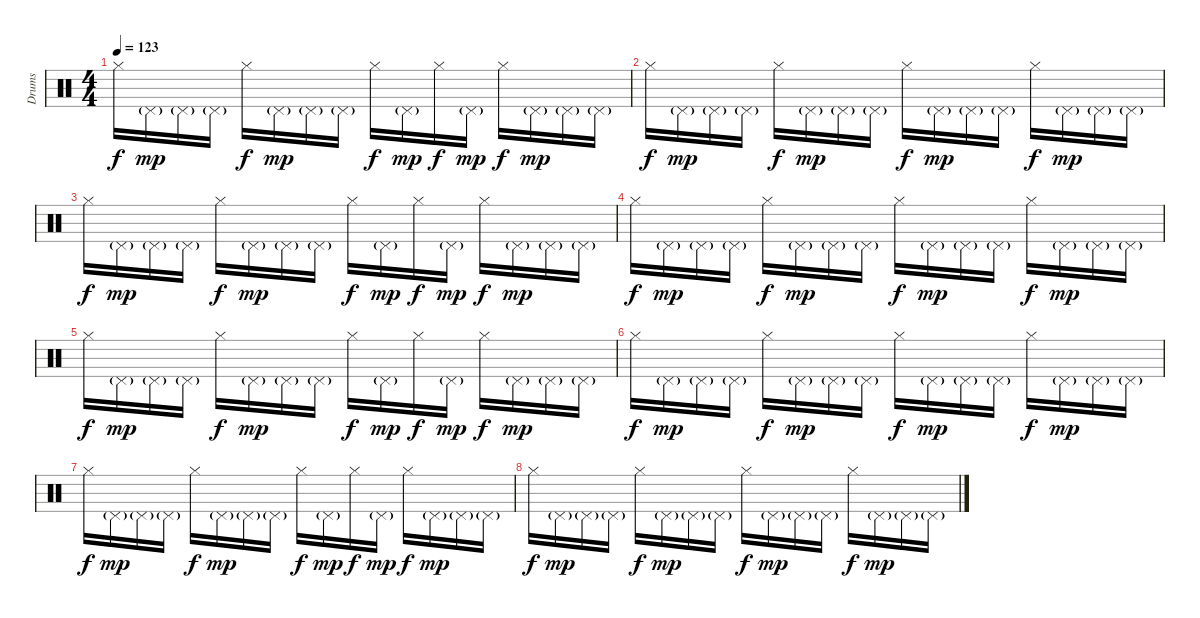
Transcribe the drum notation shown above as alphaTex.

\track ("Drums" "Drums") {instrument percussion}
\staff {score}
\articulation defaults
\ts (4 4)
\tempo 123
\clef neutral
\ks c "Hi-Hat (closed)".16{dy f} "Pedal Hi-Hat (hit)"{g}.16{dy mp} "Pedal Hi-Hat (hit)"{g}.16 "Pedal Hi-Hat (hit)"{g}.16 "Hi-Hat (closed)".16{dy f} "Pedal Hi-Hat (hit)"{g}.16{dy mp} "Pedal Hi-Hat (hit)"{g}.16 "Pedal Hi-Hat (hit)"{g}.16 "Hi-Hat (closed)".16{dy f} "Pedal Hi-Hat (hit)"{g}.16{dy mp} "Hi-Hat (closed)".16{dy f} "Pedal Hi-Hat (hit)"{g}.16{dy mp} "Hi-Hat (closed)".16{dy f} "Pedal Hi-Hat (hit)"{g}.16{dy mp} "Pedal Hi-Hat (hit)"{g}.16 "Pedal Hi-Hat (hit)"{g}.16
|
"Hi-Hat (closed)".16{dy f} "Pedal Hi-Hat (hit)"{g}.16{dy mp} "Pedal Hi-Hat (hit)"{g}.16 "Pedal Hi-Hat (hit)"{g}.16 "Hi-Hat (closed)".16{dy f} "Pedal Hi-Hat (hit)"{g}.16{dy mp} "Pedal Hi-Hat (hit)"{g}.16 "Pedal Hi-Hat (hit)"{g}.16 "Hi-Hat (closed)".16{dy f} "Pedal Hi-Hat (hit)"{g}.16{dy mp} "Pedal Hi-Hat (hit)"{g}.16 "Pedal Hi-Hat (hit)"{g}.16 "Hi-Hat (closed)".16{dy f} "Pedal Hi-Hat (hit)"{g}.16{dy mp} "Pedal Hi-Hat (hit)"{g}.16 "Pedal Hi-Hat (hit)"{g}.16 |
"Hi-Hat (closed)".16{dy f} "Pedal Hi-Hat (hit)"{g}.16{dy mp} "Pedal Hi-Hat (hit)"{g}.16 "Pedal Hi-Hat (hit)"{g}.16 "Hi-Hat (closed)".16{dy f} "Pedal Hi-Hat (hit)"{g}.16{dy mp} "Pedal Hi-Hat (hit)"{g}.16 "Pedal Hi-Hat (hit)"{g}.16 "Hi-Hat (closed)".16{dy f} "Pedal Hi-Hat (hit)"{g}.16{dy mp} "Hi-Hat (closed)".16{dy f} "Pedal Hi-Hat (hit)"{g}.16{dy mp} "Hi-Hat (closed)".16{dy f} "Pedal Hi-Hat (hit)"{g}.16{dy mp} "Pedal Hi-Hat (hit)"{g}.16 "Pedal Hi-Hat (hit)"{g}.16 |
"Hi-Hat (closed)".16{dy f} "Pedal Hi-Hat (hit)"{g}.16{dy mp} "Pedal Hi-Hat (hit)"{g}.16 "Pedal Hi-Hat (hit)"{g}.16 "Hi-Hat (closed)".16{dy f} "Pedal Hi-Hat (hit)"{g}.16{dy mp} "Pedal Hi-Hat (hit)"{g}.16 "Pedal Hi-Hat (hit)"{g}.16 "Hi-Hat (closed)".16{dy f} "Pedal Hi-Hat (hit)"{g}.16{dy mp} "Pedal Hi-Hat (hit)"{g}.16 "Pedal Hi-Hat (hit)"{g}.16 "Hi-Hat (closed)".16{dy f} "Pedal Hi-Hat (hit)"{g}.16{dy mp} "Pedal Hi-Hat (hit)"{g}.16 "Pedal Hi-Hat (hit)"{g}.16 |
"Hi-Hat (closed)".16{dy f} "Pedal Hi-Hat (hit)"{g}.16{dy mp} "Pedal Hi-Hat (hit)"{g}.16 "Pedal Hi-Hat (hit)"{g}.16 "Hi-Hat (closed)".16{dy f} "Pedal Hi-Hat (hit)"{g}.16{dy mp} "Pedal Hi-Hat (hit)"{g}.16 "Pedal Hi-Hat (hit)"{g}.16 "Hi-Hat (closed)".16{dy f} "Pedal Hi-Hat (hit)"{g}.16{dy mp} "Hi-Hat (closed)".16{dy f} "Pedal Hi-Hat (hit)"{g}.16{dy mp} "Hi-Hat (closed)".16{dy f} "Pedal Hi-Hat (hit)"{g}.16{dy mp} "Pedal Hi-Hat (hit)"{g}.16 "Pedal Hi-Hat (hit)"{g}.16 |
"Hi-Hat (closed)".16{dy f} "Pedal Hi-Hat (hit)"{g}.16{dy mp} "Pedal Hi-Hat (hit)"{g}.16 "Pedal Hi-Hat (hit)"{g}.16 "Hi-Hat (closed)".16{dy f} "Pedal Hi-Hat (hit)"{g}.16{dy mp} "Pedal Hi-Hat (hit)"{g}.16 "Pedal Hi-Hat (hit)"{g}.16 "Hi-Hat (closed)".16{dy f} "Pedal Hi-Hat (hit)"{g}.16{dy mp} "Pedal Hi-Hat (hit)"{g}.16 "Pedal Hi-Hat (hit)"{g}.16 "Hi-Hat (closed)".16{dy f} "Pedal Hi-Hat (hit)"{g}.16{dy mp} "Pedal Hi-Hat (hit)"{g}.16 "Pedal Hi-Hat (hit)"{g}.16 |
"Hi-Hat (closed)".16{dy f} "Pedal Hi-Hat (hit)"{g}.16{dy mp} "Pedal Hi-Hat (hit)"{g}.16 "Pedal Hi-Hat (hit)"{g}.16 "Hi-Hat (closed)".16{dy f} "Pedal Hi-Hat (hit)"{g}.16{dy mp} "Pedal Hi-Hat (hit)"{g}.16 "Pedal Hi-Hat (hit)"{g}.16 "Hi-Hat (closed)".16{dy f} "Pedal Hi-Hat (hit)"{g}.16{dy mp} "Hi-Hat (closed)".16{dy f} "Pedal Hi-Hat (hit)"{g}.16{dy mp} "Hi-Hat (closed)".16{dy f} "Pedal Hi-Hat (hit)"{g}.16{dy mp} "Pedal Hi-Hat (hit)"{g}.16 "Pedal Hi-Hat (hit)"{g}.16 |
"Hi-Hat (closed)".16{dy f} "Pedal Hi-Hat (hit)"{g}.16{dy mp} "Pedal Hi-Hat (hit)"{g}.16 "Pedal Hi-Hat (hit)"{g}.16 "Hi-Hat (closed)".16{dy f} "Pedal Hi-Hat (hit)"{g}.16{dy mp} "Pedal Hi-Hat (hit)"{g}.16 "Pedal Hi-Hat (hit)"{g}.16 "Hi-Hat (closed)".16{dy f} "Pedal Hi-Hat (hit)"{g}.16{dy mp} "Pedal Hi-Hat (hit)"{g}.16 "Pedal Hi-Hat (hit)"{g}.16 "Hi-Hat (closed)".16{dy f} "Pedal Hi-Hat (hit)"{g}.16{dy mp} "Pedal Hi-Hat (hit)"{g}.16 "Pedal Hi-Hat (hit)"{g}.16
